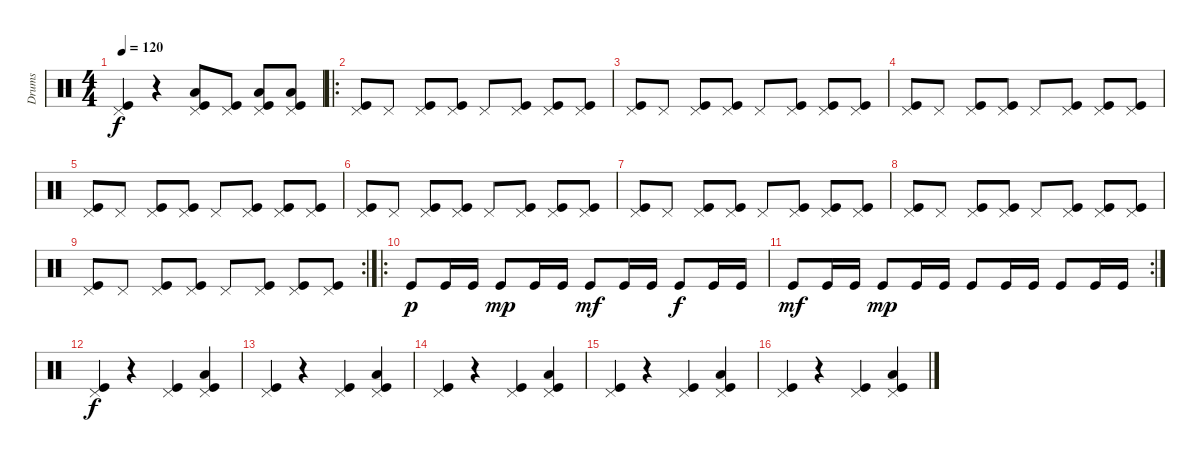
\track ("Drums" "Drums") {instrument percussion}
\staff {score}
\articulation defaults
\ts (4 4)
\tempo 120
\clef neutral
\ks c
("Pedal Hi-Hat (hit)" "Kick (hit)").4{dy f} r.4 ("Pedal Hi-Hat (hit)" "Low Tom (hit)" "Kick (hit)").8 ("Pedal Hi-Hat (hit)" "Kick (hit)").8 ("Pedal Hi-Hat (hit)" "Low Tom (hit)" "Kick (hit)").8 ("Pedal Hi-Hat (hit)" "Low Tom (hit)" "Kick (hit)").8 |
\ro
("Pedal Hi-Hat (hit)" "Kick (hit)").8 "Pedal Hi-Hat (hit)".8 ("Pedal Hi-Hat (hit)" "Kick (hit)").8 ("Pedal Hi-Hat (hit)" "Kick (hit)").8 "Pedal Hi-Hat (hit)".8 ("Pedal Hi-Hat (hit)" "Kick (hit)").8 ("Pedal Hi-Hat (hit)" "Kick (hit)").8 ("Pedal Hi-Hat (hit)" "Kick (hit)").8 |
("Pedal Hi-Hat (hit)" "Kick (hit)").8 "Pedal Hi-Hat (hit)".8 ("Pedal Hi-Hat (hit)" "Kick (hit)").8 ("Pedal Hi-Hat (hit)" "Kick (hit)").8 "Pedal Hi-Hat (hit)".8 ("Pedal Hi-Hat (hit)" "Kick (hit)").8 ("Pedal Hi-Hat (hit)" "Kick (hit)").8 ("Pedal Hi-Hat (hit)" "Kick (hit)").8 |
("Pedal Hi-Hat (hit)" "Kick (hit)").8 "Pedal Hi-Hat (hit)".8 ("Pedal Hi-Hat (hit)" "Kick (hit)").8 ("Pedal Hi-Hat (hit)" "Kick (hit)").8 "Pedal Hi-Hat (hit)".8 ("Pedal Hi-Hat (hit)" "Kick (hit)").8 ("Pedal Hi-Hat (hit)" "Kick (hit)").8 ("Pedal Hi-Hat (hit)" "Kick (hit)").8 |
("Pedal Hi-Hat (hit)" "Kick (hit)").8 "Pedal Hi-Hat (hit)".8 ("Pedal Hi-Hat (hit)" "Kick (hit)").8 ("Pedal Hi-Hat (hit)" "Kick (hit)").8 "Pedal Hi-Hat (hit)".8 ("Pedal Hi-Hat (hit)" "Kick (hit)").8 ("Pedal Hi-Hat (hit)" "Kick (hit)").8 ("Pedal Hi-Hat (hit)" "Kick (hit)").8 |
("Pedal Hi-Hat (hit)" "Kick (hit)").8 "Pedal Hi-Hat (hit)".8 ("Pedal Hi-Hat (hit)" "Kick (hit)").8 ("Pedal Hi-Hat (hit)" "Kick (hit)").8 "Pedal Hi-Hat (hit)".8 ("Pedal Hi-Hat (hit)" "Kick (hit)").8 ("Pedal Hi-Hat (hit)" "Kick (hit)").8 ("Pedal Hi-Hat (hit)" "Kick (hit)").8 |
("Pedal Hi-Hat (hit)" "Kick (hit)").8 "Pedal Hi-Hat (hit)".8 ("Pedal Hi-Hat (hit)" "Kick (hit)").8 ("Pedal Hi-Hat (hit)" "Kick (hit)").8 "Pedal Hi-Hat (hit)".8 ("Pedal Hi-Hat (hit)" "Kick (hit)").8 ("Pedal Hi-Hat (hit)" "Kick (hit)").8 ("Pedal Hi-Hat (hit)" "Kick (hit)").8 |
("Pedal Hi-Hat (hit)" "Kick (hit)").8 "Pedal Hi-Hat (hit)".8 ("Pedal Hi-Hat (hit)" "Kick (hit)").8 ("Pedal Hi-Hat (hit)" "Kick (hit)").8 "Pedal Hi-Hat (hit)".8 ("Pedal Hi-Hat (hit)" "Kick (hit)").8 ("Pedal Hi-Hat (hit)" "Kick (hit)").8 ("Pedal Hi-Hat (hit)" "Kick (hit)").8 |
\rc 2
("Pedal Hi-Hat (hit)" "Kick (hit)").8 "Pedal Hi-Hat (hit)".8 ("Pedal Hi-Hat (hit)" "Kick (hit)").8 ("Pedal Hi-Hat (hit)" "Kick (hit)").8 "Pedal Hi-Hat (hit)".8 ("Pedal Hi-Hat (hit)" "Kick (hit)").8 ("Pedal Hi-Hat (hit)" "Kick (hit)").8 ("Pedal Hi-Hat (hit)" "Kick (hit)").8 |
\ro "Kick (hit)".8{dy p} "Kick (hit)".16 "Kick (hit)".16 "Kick (hit)".8{dy mp} "Kick (hit)".16 "Kick (hit)".16 "Kick (hit)".8{dy mf} "Kick (hit)".16 "Kick (hit)".16 "Kick (hit)".8{dy f} "Kick (hit)".16 "Kick (hit)".16
|
\rc 2 "Kick (hit)".8{dy mf} "Kick (hit)".16 "Kick (hit)".16 "Kick (hit)".8{dy mp} "Kick (hit)".16 "Kick (hit)".16 "Kick (hit)".8 "Kick (hit)".16 "Kick (hit)".16 "Kick (hit)".8 "Kick (hit)".16 "Kick (hit)".16
|
("Pedal Hi-Hat (hit)" "Kick (hit)").4{dy f} r.4 ("Pedal Hi-Hat (hit)" "Kick (hit)").4 ("Pedal Hi-Hat (hit)" "Low Tom (hit)" "Kick (hit)").4 |
("Pedal Hi-Hat (hit)" "Kick (hit)").4 r.4 ("Pedal Hi-Hat (hit)" "Kick (hit)").4 ("Pedal Hi-Hat (hit)" "Low Tom (hit)" "Kick (hit)").4 |
("Pedal Hi-Hat (hit)" "Kick (hit)").4 r.4 ("Pedal Hi-Hat (hit)" "Kick (hit)").4 ("Pedal Hi-Hat (hit)" "Low Tom (hit)" "Kick (hit)").4 |
("Pedal Hi-Hat (hit)" "Kick (hit)").4 r.4 ("Pedal Hi-Hat (hit)" "Kick (hit)").4 ("Pedal Hi-Hat (hit)" "Low Tom (hit)" "Kick (hit)").4 |
("Pedal Hi-Hat (hit)" "Kick (hit)").4 r.4 ("Pedal Hi-Hat (hit)" "Kick (hit)").4 ("Pedal Hi-Hat (hit)" "Low Tom (hit)" "Kick (hit)").4
